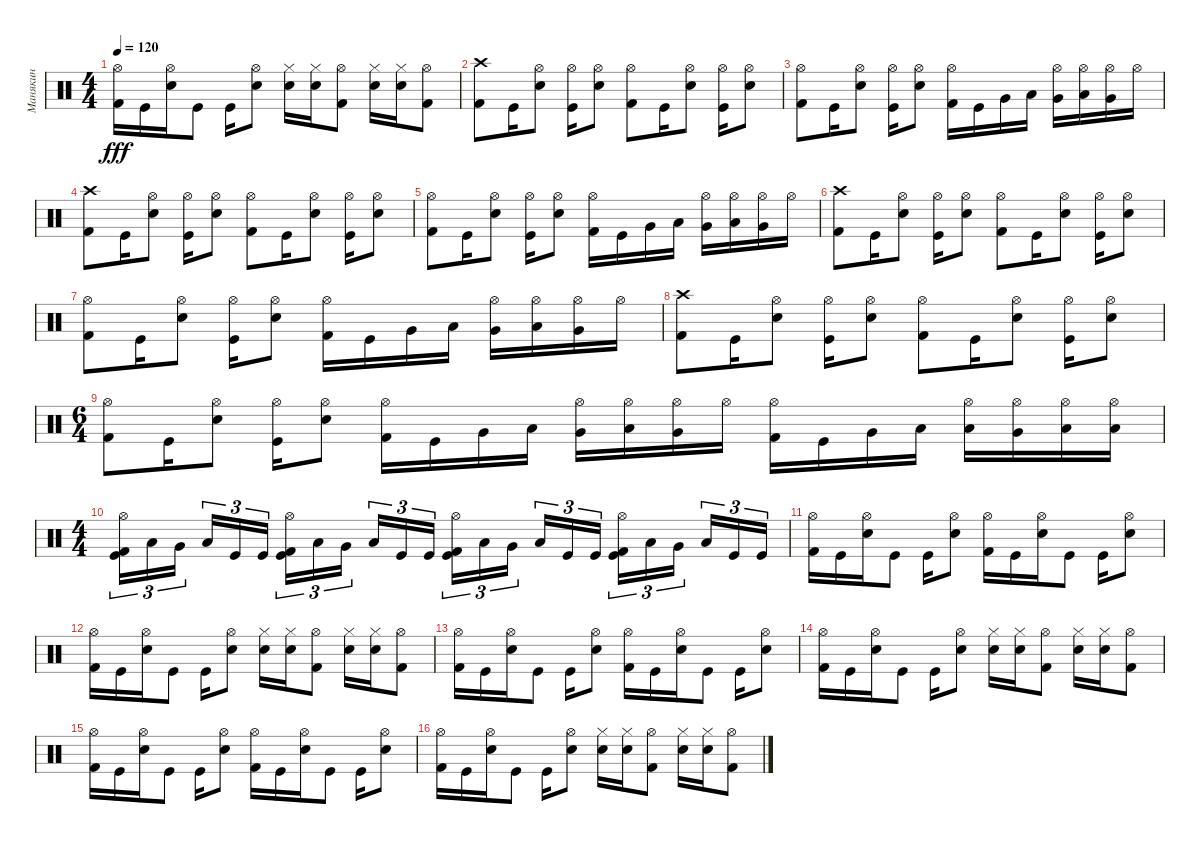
\track ("Манякин" "Манякин") {instrument percussion}
\staff {score}
\articulation defaults
\ts (4 4)
\tempo 120
\clef neutral
\ks c
("Hi-Hat (open)" "Kick (hit) 2").16{dy fff} "Kick (hit)".16 ("Hi-Hat (open)" "Snare (hit) 2").16 "Kick (hit)".8 "Kick (hit)".16 ("Hi-Hat (open)" "Snare (hit) 2").8 ("Hi-Hat (closed)" "Snare (hit) 2").16 ("Hi-Hat (closed)" "Snare (hit) 2").16 ("Hi-Hat (open)" "Kick (hit) 2").8 ("Hi-Hat (closed)" "Snare (hit) 2").16 ("Hi-Hat (closed)" "Snare (hit) 2").16 ("Hi-Hat (open)" "Kick (hit) 2").8 |
("Crash high (hit)" "Kick (hit) 2").8 "Kick (hit)".16 ("Hi-Hat (open)" "Snare (hit) 2").8 ("Kick (hit)" "Hi-Hat (open)").16 ("Hi-Hat (open)" "Snare (hit) 2").8 ("Kick (hit) 2" "Hi-Hat (open)").8 "Kick (hit)".16 ("Hi-Hat (open)" "Snare (hit) 2").8 ("Kick (hit)" "Hi-Hat (open)").16 ("Hi-Hat (open)" "Snare (hit) 2").8 |
("Kick (hit) 2" "Hi-Hat (open)").8 "Kick (hit)".16 ("Hi-Hat (open)" "Snare (hit) 2").8 ("Kick (hit)" "Hi-Hat (open)").16 ("Hi-Hat (open)" "Snare (hit) 2").8 ("Hi-Hat (open)" "Kick (hit) 2").16 "Kick (hit)".16 "Very Low Tom (hit)".16 "Low Floor Tom (hit)".16 ("Hi-Hat (open)" "Very Low Tom (hit)").16 ("Hi-Hat (open)" "Low Floor Tom (hit)").16 ("Hi-Hat (open)" "Very Low Tom (hit)").16 "Hi-Hat (open)".16 |
("Crash high (hit)" "Kick (hit) 2").8 "Kick (hit)".16 ("Hi-Hat (open)" "Snare (hit) 2").8 ("Kick (hit)" "Hi-Hat (open)").16 ("Hi-Hat (open)" "Snare (hit) 2").8 ("Kick (hit) 2" "Hi-Hat (open)").8 "Kick (hit)".16 ("Hi-Hat (open)" "Snare (hit) 2").8 ("Kick (hit)" "Hi-Hat (open)").16 ("Hi-Hat (open)" "Snare (hit) 2").8 |
("Kick (hit) 2" "Hi-Hat (open)").8 "Kick (hit)".16 ("Hi-Hat (open)" "Snare (hit) 2").8 ("Kick (hit)" "Hi-Hat (open)").16 ("Hi-Hat (open)" "Snare (hit) 2").8 ("Hi-Hat (open)" "Kick (hit) 2").16 "Kick (hit)".16 "Very Low Tom (hit)".16 "Low Floor Tom (hit)".16 ("Hi-Hat (open)" "Very Low Tom (hit)").16 ("Hi-Hat (open)" "Low Floor Tom (hit)").16 ("Hi-Hat (open)" "Very Low Tom (hit)").16 "Hi-Hat (open)".16 |
("Crash high (hit)" "Kick (hit) 2").8 "Kick (hit)".16 ("Hi-Hat (open)" "Snare (hit) 2").8 ("Kick (hit)" "Hi-Hat (open)").16 ("Hi-Hat (open)" "Snare (hit) 2").8 ("Kick (hit) 2" "Hi-Hat (open)").8 "Kick (hit)".16 ("Hi-Hat (open)" "Snare (hit) 2").8 ("Kick (hit)" "Hi-Hat (open)").16 ("Hi-Hat (open)" "Snare (hit) 2").8 |
("Kick (hit) 2" "Hi-Hat (open)").8 "Kick (hit)".16 ("Hi-Hat (open)" "Snare (hit) 2").8 ("Kick (hit)" "Hi-Hat (open)").16 ("Hi-Hat (open)" "Snare (hit) 2").8 ("Hi-Hat (open)" "Kick (hit) 2").16 "Kick (hit)".16 "Very Low Tom (hit)".16 "Low Floor Tom (hit)".16 ("Hi-Hat (open)" "Very Low Tom (hit)").16 ("Hi-Hat (open)" "Low Floor Tom (hit)").16 ("Hi-Hat (open)" "Very Low Tom (hit)").16 "Hi-Hat (open)".16 |
("Crash high (hit)" "Kick (hit) 2").8 "Kick (hit)".16 ("Hi-Hat (open)" "Snare (hit) 2").8 ("Kick (hit)" "Hi-Hat (open)").16 ("Hi-Hat (open)" "Snare (hit) 2").8 ("Kick (hit) 2" "Hi-Hat (open)").8 "Kick (hit)".16 ("Hi-Hat (open)" "Snare (hit) 2").8 ("Kick (hit)" "Hi-Hat (open)").16 ("Hi-Hat (open)" "Snare (hit) 2").8 |
\ts (6 4)
("Kick (hit) 2" "Hi-Hat (open)").8 "Kick (hit)".16 ("Hi-Hat (open)" "Snare (hit) 2").8 ("Kick (hit)" "Hi-Hat (open)").16 ("Hi-Hat (open)" "Snare (hit) 2").8 ("Hi-Hat (open)" "Kick (hit) 2").16 "Kick (hit)".16 "Very Low Tom (hit)".16 "Low Floor Tom (hit)".16 ("Hi-Hat (open)" "Very Low Tom (hit)").16 ("Hi-Hat (open)" "Low Floor Tom (hit)").16 ("Hi-Hat (open)" "Very Low Tom (hit)").16 "Hi-Hat (open)".16 ("Hi-Hat (open)" "Kick (hit) 2").16 "Kick (hit)".16 "Very Low Tom (hit)".16 "Low Floor Tom (hit)".16 ("Hi-Hat (open)" "Low Tom (hit)").16 ("Hi-Hat (open)" "Very Low Tom (hit)").16 ("Hi-Hat (open)" "Low Floor Tom (hit)").16 ("Hi-Hat (open)" "Low Tom (hit)").16 |
\ts (4 4)
("Kick (hit) 2" "Hi-Hat (open)" "Kick (hit)").16{tu (3 2)} "Low Tom (hit)".16{tu (3 2)} "Very Low Tom (hit)".16{tu (3 2)} "Low Floor Tom (hit)".16{tu (3 2)} "Kick (hit)".16{tu (3 2)} "Kick (hit)".16{tu (3 2)} ("Kick (hit) 2" "Hi-Hat (open)" "Kick (hit)").16{tu (3 2)} "Low Tom (hit)".16{tu (3 2)} "Very Low Tom (hit)".16{tu (3 2)} "Low Floor Tom (hit)".16{tu (3 2)} "Kick (hit)".16{tu (3 2)} "Kick (hit)".16{tu (3 2)} ("Kick (hit) 2" "Hi-Hat (open)" "Kick (hit)").16{tu (3 2)} "Low Tom (hit)".16{tu (3 2)} "Very Low Tom (hit)".16{tu (3 2)} "Low Floor Tom (hit)".16{tu (3 2)} "Kick (hit)".16{tu (3 2)} "Kick (hit)".16{tu (3 2)} ("Kick (hit) 2" "Hi-Hat (open)" "Kick (hit)").16{tu (3 2)} "Low Tom (hit)".16{tu (3 2)} "Very Low Tom (hit)".16{tu (3 2)} "Low Floor Tom (hit)".16{tu (3 2)} "Kick (hit)".16{tu (3 2)} "Kick (hit)".16{tu (3 2)} |
("Hi-Hat (open)" "Kick (hit) 2").16 "Kick (hit)".16 ("Hi-Hat (open)" "Snare (hit) 2").16 "Kick (hit)".8 "Kick (hit)".16 ("Hi-Hat (open)" "Snare (hit) 2").8 ("Kick (hit) 2" "Hi-Hat (open)").16 "Kick (hit)".16 ("Hi-Hat (open)" "Snare (hit) 2").16 "Kick (hit)".8 "Kick (hit)".16 ("Hi-Hat (open)" "Snare (hit) 2").8 |
("Hi-Hat (open)" "Kick (hit) 2").16 "Kick (hit)".16 ("Hi-Hat (open)" "Snare (hit) 2").16 "Kick (hit)".8 "Kick (hit)".16 ("Hi-Hat (open)" "Snare (hit) 2").8 ("Hi-Hat (closed)" "Snare (hit) 2").16 ("Hi-Hat (closed)" "Snare (hit) 2").16 ("Hi-Hat (open)" "Kick (hit) 2").8 ("Hi-Hat (closed)" "Snare (hit) 2").16 ("Hi-Hat (closed)" "Snare (hit) 2").16 ("Hi-Hat (open)" "Kick (hit) 2").8 |
("Hi-Hat (open)" "Kick (hit) 2").16 "Kick (hit)".16 ("Hi-Hat (open)" "Snare (hit) 2").16 "Kick (hit)".8 "Kick (hit)".16 ("Hi-Hat (open)" "Snare (hit) 2").8 ("Kick (hit) 2" "Hi-Hat (open)").16 "Kick (hit)".16 ("Hi-Hat (open)" "Snare (hit) 2").16 "Kick (hit)".8 "Kick (hit)".16 ("Hi-Hat (open)" "Snare (hit) 2").8 |
("Hi-Hat (open)" "Kick (hit) 2").16 "Kick (hit)".16 ("Hi-Hat (open)" "Snare (hit) 2").16 "Kick (hit)".8 "Kick (hit)".16 ("Hi-Hat (open)" "Snare (hit) 2").8 ("Hi-Hat (closed)" "Snare (hit) 2").16 ("Hi-Hat (closed)" "Snare (hit) 2").16 ("Hi-Hat (open)" "Kick (hit) 2").8 ("Hi-Hat (closed)" "Snare (hit) 2").16 ("Hi-Hat (closed)" "Snare (hit) 2").16 ("Hi-Hat (open)" "Kick (hit) 2").8 |
("Hi-Hat (open)" "Kick (hit) 2").16 "Kick (hit)".16 ("Hi-Hat (open)" "Snare (hit) 2").16 "Kick (hit)".8 "Kick (hit)".16 ("Hi-Hat (open)" "Snare (hit) 2").8 ("Kick (hit) 2" "Hi-Hat (open)").16 "Kick (hit)".16 ("Hi-Hat (open)" "Snare (hit) 2").16 "Kick (hit)".8 "Kick (hit)".16 ("Hi-Hat (open)" "Snare (hit) 2").8 |
("Hi-Hat (open)" "Kick (hit) 2").16 "Kick (hit)".16 ("Hi-Hat (open)" "Snare (hit) 2").16 "Kick (hit)".8 "Kick (hit)".16 ("Hi-Hat (open)" "Snare (hit) 2").8 ("Hi-Hat (closed)" "Snare (hit) 2").16 ("Hi-Hat (closed)" "Snare (hit) 2").16 ("Hi-Hat (open)" "Kick (hit) 2").8 ("Hi-Hat (closed)" "Snare (hit) 2").16 ("Hi-Hat (closed)" "Snare (hit) 2").16 ("Hi-Hat (open)" "Kick (hit) 2").8
